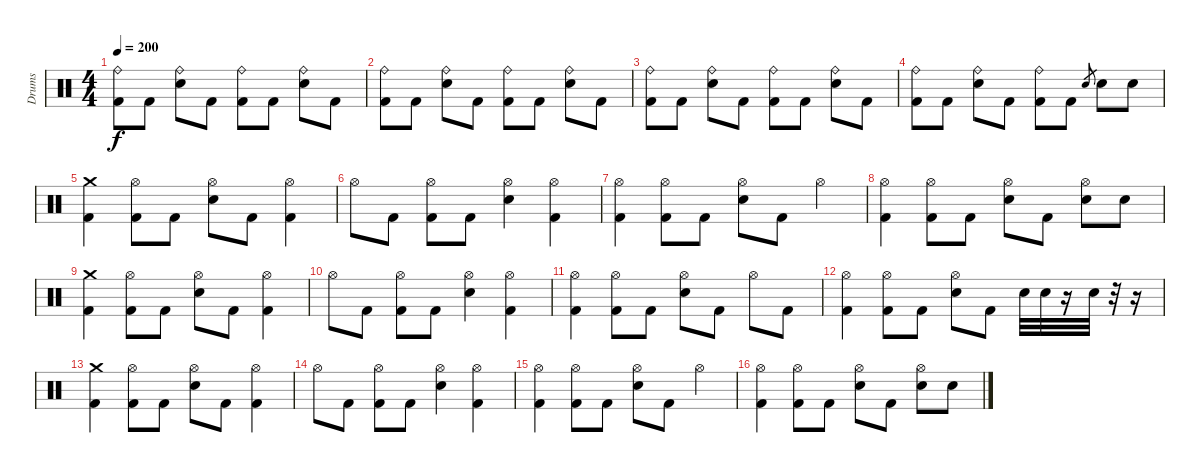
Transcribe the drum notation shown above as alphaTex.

\track ("Drums" "Drums") {instrument percussion}
\staff {score}
\articulation defaults
\ts (4 4)
\tempo 200
\clef neutral
\ks c
("Ride (bell)" "Kick (hit) 2").8{dy f} "Kick (hit) 2".8 ("Ride (bell)" "Electric Snare (hit)").8 "Kick (hit) 2".8 ("Ride (bell)" "Kick (hit) 2").8 "Kick (hit) 2".8 ("Ride (bell)" "Electric Snare (hit)").8 "Kick (hit) 2".8 |
("Ride (bell)" "Kick (hit) 2").8 "Kick (hit) 2".8 ("Ride (bell)" "Electric Snare (hit)").8 "Kick (hit) 2".8 ("Ride (bell)" "Kick (hit) 2").8 "Kick (hit) 2".8 ("Ride (bell)" "Electric Snare (hit)").8 "Kick (hit) 2".8 |
("Ride (bell)" "Kick (hit) 2").8 "Kick (hit) 2".8 ("Ride (bell)" "Electric Snare (hit)").8 "Kick (hit) 2".8 ("Ride (bell)" "Kick (hit) 2").8 "Kick (hit) 2".8 ("Ride (bell)" "Electric Snare (hit)").8 "Kick (hit) 2".8 |
("Ride (bell)" "Kick (hit) 2").8 "Kick (hit) 2".8 ("Ride (bell)" "Electric Snare (hit)").8 "Kick (hit) 2".8 ("Ride (bell)" "Kick (hit) 2").8 "Kick (hit) 2".8 "Electric Snare (hit)".8{gr} "Electric Snare (hit)".8 "Electric Snare (hit)".8 |
("Crash medium (hit)" "Kick (hit) 2").4 ("Hi-Hat (open)" "Kick (hit) 2").8 "Kick (hit) 2".8 ("Hi-Hat (open)" "Electric Snare (hit)").8 "Kick (hit) 2".8 ("Hi-Hat (open)" "Kick (hit) 2").4 |
"Hi-Hat (open)".8 "Kick (hit) 2".8 ("Hi-Hat (open)" "Kick (hit) 2").8 "Kick (hit) 2".8 ("Hi-Hat (open)" "Electric Snare (hit)").4 ("Hi-Hat (open)" "Kick (hit) 2").4 |
("Hi-Hat (open)" "Kick (hit) 2").4 ("Hi-Hat (open)" "Kick (hit) 2").8 "Kick (hit) 2".8 ("Hi-Hat (open)" "Electric Snare (hit)").8 "Kick (hit) 2".8 "Hi-Hat (open)".4 |
("Hi-Hat (open)" "Kick (hit) 2").4 ("Hi-Hat (open)" "Kick (hit) 2").8 "Kick (hit) 2".8 ("Hi-Hat (open)" "Electric Snare (hit)").8 "Kick (hit) 2".8 ("Hi-Hat (open)" "Electric Snare (hit)").8 "Electric Snare (hit)".8 |
("Crash medium (hit)" "Kick (hit) 2").4 ("Hi-Hat (open)" "Kick (hit) 2").8 "Kick (hit) 2".8 ("Hi-Hat (open)" "Electric Snare (hit)").8 "Kick (hit) 2".8 ("Hi-Hat (open)" "Kick (hit) 2").4 |
"Hi-Hat (open)".8 "Kick (hit) 2".8 ("Hi-Hat (open)" "Kick (hit) 2").8 "Kick (hit) 2".8 ("Hi-Hat (open)" "Electric Snare (hit)").4 ("Hi-Hat (open)" "Kick (hit) 2").4 |
("Hi-Hat (open)" "Kick (hit) 2").4 ("Hi-Hat (open)" "Kick (hit) 2").8 "Kick (hit) 2".8 ("Hi-Hat (open)" "Electric Snare (hit)").8 "Kick (hit) 2".8 "Hi-Hat (open)".8 "Kick (hit) 2".8 |
("Kick (hit) 2" "Hi-Hat (open)").4 ("Hi-Hat (open)" "Kick (hit) 2").8 "Kick (hit) 2".8 ("Electric Snare (hit)" "Hi-Hat (open)").8 "Kick (hit) 2".8 "Electric Snare (hit)".32 "Electric Snare (hit)".32 r.16 "Electric Snare (hit)".32 r.32 r.16 |
("Crash medium (hit)" "Kick (hit) 2").4 ("Hi-Hat (open)" "Kick (hit) 2").8 "Kick (hit) 2".8 ("Hi-Hat (open)" "Electric Snare (hit)").8 "Kick (hit) 2".8 ("Hi-Hat (open)" "Kick (hit) 2").4 |
"Hi-Hat (open)".8 "Kick (hit) 2".8 ("Hi-Hat (open)" "Kick (hit) 2").8 "Kick (hit) 2".8 ("Hi-Hat (open)" "Electric Snare (hit)").4 ("Hi-Hat (open)" "Kick (hit) 2").4 |
("Hi-Hat (open)" "Kick (hit) 2").4 ("Hi-Hat (open)" "Kick (hit) 2").8 "Kick (hit) 2".8 ("Hi-Hat (open)" "Electric Snare (hit)").8 "Kick (hit) 2".8 "Hi-Hat (open)".4 |
("Hi-Hat (open)" "Kick (hit) 2").4 ("Hi-Hat (open)" "Kick (hit) 2").8 "Kick (hit) 2".8 ("Hi-Hat (open)" "Electric Snare (hit)").8 "Kick (hit) 2".8 ("Hi-Hat (open)" "Electric Snare (hit)").8 "Electric Snare (hit)".8
